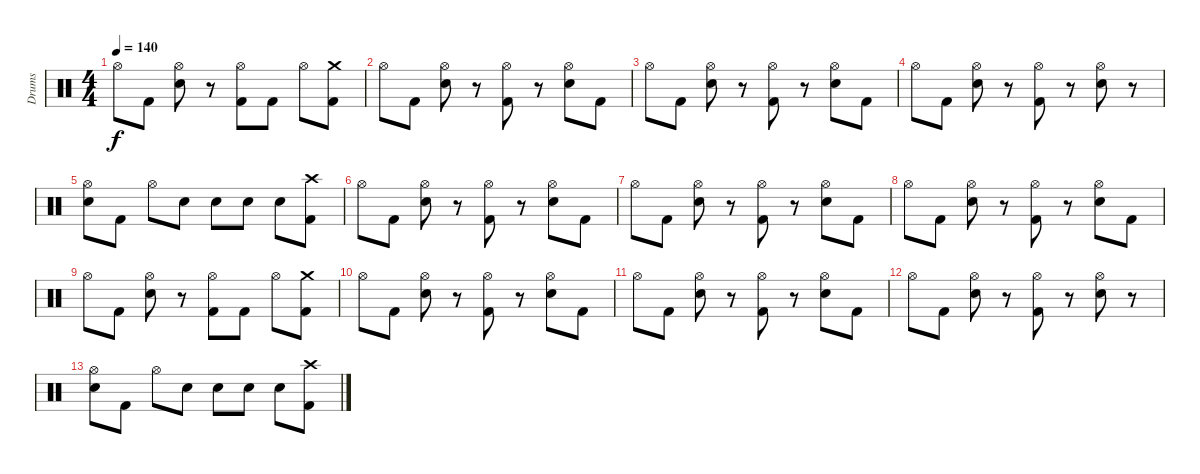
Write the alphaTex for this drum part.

\track ("Drums" "Drums") {instrument percussion}
\staff {score}
\articulation defaults
\ts (4 4)
\tempo 140
\clef neutral
\ks c "Hi-Hat (open)".8{dy f} "Kick (hit) 2".8
("Hi-Hat (open)" "Electric Snare (hit)").8 r.8 ("Hi-Hat (open)" "Kick (hit) 2").8 "Kick (hit) 2".8 "Hi-Hat (open)".8 ("Crash medium (hit)" "Kick (hit) 2").8 |
"Hi-Hat (open)".8 "Kick (hit) 2".8 ("Hi-Hat (open)" "Electric Snare (hit)").8 r.8 ("Hi-Hat (open)" "Kick (hit) 2").8 r.8 ("Hi-Hat (open)" "Electric Snare (hit)").8 "Kick (hit) 2".8 |
"Hi-Hat (open)".8 "Kick (hit) 2".8 ("Hi-Hat (open)" "Electric Snare (hit)").8 r.8 ("Hi-Hat (open)" "Kick (hit) 2").8 r.8 ("Hi-Hat (open)" "Electric Snare (hit)").8 "Kick (hit) 2".8 |
"Hi-Hat (open)".8 "Kick (hit) 2".8 ("Hi-Hat (open)" "Electric Snare (hit)").8 r.8 ("Hi-Hat (open)" "Kick (hit) 2").8 r.8 ("Hi-Hat (open)" "Electric Snare (hit)").8 r.8 |
("Hi-Hat (open)" "Electric Snare (hit)").8 "Kick (hit) 2".8 "Hi-Hat (open)".8 "Electric Snare (hit)".8 "Electric Snare (hit)".8 "Electric Snare (hit)".8 "Electric Snare (hit)".8 ("Crash high (hit)" "Kick (hit) 2").8 |
"Hi-Hat (open)".8 "Kick (hit) 2".8 ("Hi-Hat (open)" "Electric Snare (hit)").8 r.8 ("Hi-Hat (open)" "Kick (hit) 2").8 r.8 ("Hi-Hat (open)" "Electric Snare (hit)").8 "Kick (hit) 2".8 |
"Hi-Hat (open)".8 "Kick (hit) 2".8 ("Hi-Hat (open)" "Electric Snare (hit)").8 r.8 ("Hi-Hat (open)" "Kick (hit) 2").8 r.8 ("Hi-Hat (open)" "Electric Snare (hit)").8 "Kick (hit) 2".8 |
"Hi-Hat (open)".8 "Kick (hit) 2".8 ("Hi-Hat (open)" "Electric Snare (hit)").8 r.8 ("Hi-Hat (open)" "Kick (hit) 2").8 r.8 ("Hi-Hat (open)" "Electric Snare (hit)").8 "Kick (hit) 2".8 |
"Hi-Hat (open)".8 "Kick (hit) 2".8 ("Hi-Hat (open)" "Electric Snare (hit)").8 r.8 ("Hi-Hat (open)" "Kick (hit) 2").8 "Kick (hit) 2".8 "Hi-Hat (open)".8 ("Crash medium (hit)" "Kick (hit) 2").8 |
"Hi-Hat (open)".8 "Kick (hit) 2".8 ("Hi-Hat (open)" "Electric Snare (hit)").8 r.8 ("Hi-Hat (open)" "Kick (hit) 2").8 r.8 ("Hi-Hat (open)" "Electric Snare (hit)").8 "Kick (hit) 2".8 |
"Hi-Hat (open)".8 "Kick (hit) 2".8 ("Hi-Hat (open)" "Electric Snare (hit)").8 r.8 ("Hi-Hat (open)" "Kick (hit) 2").8 r.8 ("Hi-Hat (open)" "Electric Snare (hit)").8 "Kick (hit) 2".8 |
"Hi-Hat (open)".8 "Kick (hit) 2".8 ("Hi-Hat (open)" "Electric Snare (hit)").8 r.8 ("Hi-Hat (open)" "Kick (hit) 2").8 r.8 ("Hi-Hat (open)" "Electric Snare (hit)").8 r.8 |
("Hi-Hat (open)" "Electric Snare (hit)").8 "Kick (hit) 2".8 "Hi-Hat (open)".8 "Electric Snare (hit)".8 "Electric Snare (hit)".8 "Electric Snare (hit)".8 "Electric Snare (hit)".8 ("Crash high (hit)" "Kick (hit) 2").8
